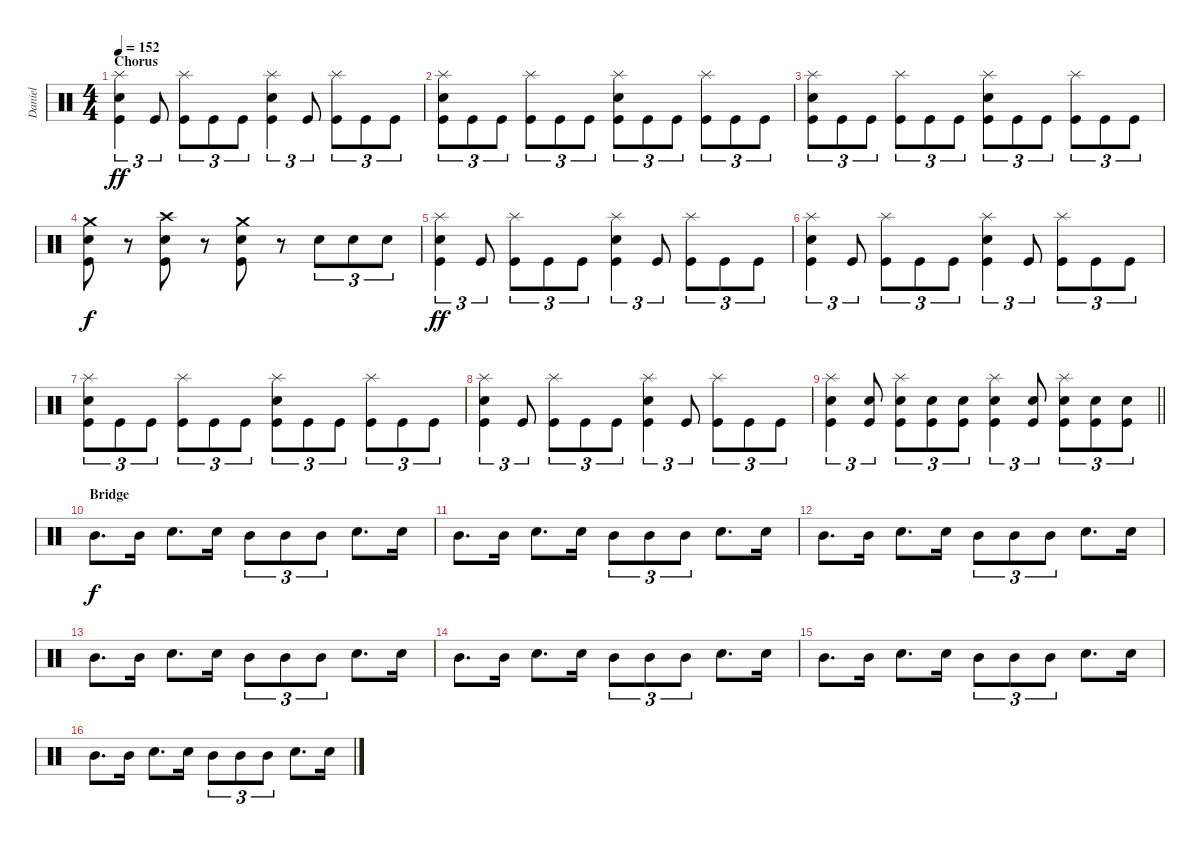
\track ("Daniel" "Daniel") {instrument percussion}
\staff {score}
\articulation defaults
\ts (4 4)
\section ("" "Chorus")
\tempo 152
\clef neutral
\ks c
("Kick (hit)" "Snare (hit) 2" "Splash (hit)").4{tu (3 2) dy ff} "Kick (hit)".8{tu (3 2)} ("Kick (hit)" "Splash (hit)").8{tu (3 2)} "Kick (hit)".8{tu (3 2)} "Kick (hit)".8{tu (3 2)} ("Kick (hit)" "Snare (hit) 2" "Splash (hit)").4{tu (3 2)} "Kick (hit)".8{tu (3 2)} ("Kick (hit)" "Splash (hit)").8{tu (3 2)} "Kick (hit)".8{tu (3 2)} "Kick (hit)".8{tu (3 2)} |
("Kick (hit)" "Snare (hit) 2" "Splash (hit)").8{tu (3 2)} "Kick (hit)".8{tu (3 2)} "Kick (hit)".8{tu (3 2)} ("Kick (hit)" "Splash (hit)").8{tu (3 2)} "Kick (hit)".8{tu (3 2)} "Kick (hit)".8{tu (3 2)} ("Kick (hit)" "Snare (hit) 2" "Splash (hit)").8{tu (3 2)} "Kick (hit)".8{tu (3 2)} "Kick (hit)".8{tu (3 2)} ("Kick (hit)" "Splash (hit)").8{tu (3 2)} "Kick (hit)".8{tu (3 2)} "Kick (hit)".8{tu (3 2)} |
("Kick (hit)" "Snare (hit) 2" "Splash (hit)").8{tu (3 2)} "Kick (hit)".8{tu (3 2)} "Kick (hit)".8{tu (3 2)} ("Kick (hit)" "Splash (hit)").8{tu (3 2)} "Kick (hit)".8{tu (3 2)} "Kick (hit)".8{tu (3 2)} ("Kick (hit)" "Snare (hit) 2" "Splash (hit)").8{tu (3 2)} "Kick (hit)".8{tu (3 2)} "Kick (hit)".8{tu (3 2)} ("Kick (hit)" "Splash (hit)").8{tu (3 2)} "Kick (hit)".8{tu (3 2)} "Kick (hit)".8{tu (3 2)} |
("Kick (hit)" "Snare (hit) 2" "Crash medium (hit)").8{dy f} r.8 ("Kick (hit)" "Snare (hit) 2" "Crash high (hit)").8 r.8 ("Kick (hit)" "Snare (hit) 2" "Crash medium (hit)").8 r.8 "Snare (hit) 2".8{tu (3 2)} "Snare (hit) 2".8{tu (3 2)} "Snare (hit) 2".8{tu (3 2)} |
("Kick (hit)" "Snare (hit) 2" "Splash (hit)").4{tu (3 2) dy ff} "Kick (hit)".8{tu (3 2)} ("Kick (hit)" "Splash (hit)").8{tu (3 2)} "Kick (hit)".8{tu (3 2)} "Kick (hit)".8{tu (3 2)} ("Kick (hit)" "Snare (hit) 2" "Splash (hit)").4{tu (3 2)} "Kick (hit)".8{tu (3 2)} ("Kick (hit)" "Splash (hit)").8{tu (3 2)} "Kick (hit)".8{tu (3 2)} "Kick (hit)".8{tu (3 2)} |
("Kick (hit)" "Snare (hit) 2" "Splash (hit)").4{tu (3 2)} "Kick (hit)".8{tu (3 2)} ("Kick (hit)" "Splash (hit)").8{tu (3 2)} "Kick (hit)".8{tu (3 2)} "Kick (hit)".8{tu (3 2)} ("Kick (hit)" "Snare (hit) 2" "Splash (hit)").4{tu (3 2)} "Kick (hit)".8{tu (3 2)} ("Kick (hit)" "Splash (hit)").8{tu (3 2)} "Kick (hit)".8{tu (3 2)} "Kick (hit)".8{tu (3 2)} |
("Kick (hit)" "Snare (hit) 2" "Splash (hit)").8{tu (3 2)} "Kick (hit)".8{tu (3 2)} "Kick (hit)".8{tu (3 2)} ("Kick (hit)" "Splash (hit)").8{tu (3 2)} "Kick (hit)".8{tu (3 2)} "Kick (hit)".8{tu (3 2)} ("Kick (hit)" "Snare (hit) 2" "Splash (hit)").8{tu (3 2)} "Kick (hit)".8{tu (3 2)} "Kick (hit)".8{tu (3 2)} ("Kick (hit)" "Splash (hit)").8{tu (3 2)} "Kick (hit)".8{tu (3 2)} "Kick (hit)".8{tu (3 2)} |
("Kick (hit)" "Snare (hit) 2" "Splash (hit)").4{tu (3 2)} "Kick (hit)".8{tu (3 2)} ("Kick (hit)" "Splash (hit)").8{tu (3 2)} "Kick (hit)".8{tu (3 2)} "Kick (hit)".8{tu (3 2)} ("Kick (hit)" "Snare (hit) 2" "Splash (hit)").4{tu (3 2)} "Kick (hit)".8{tu (3 2)} ("Kick (hit)" "Splash (hit)").8{tu (3 2)} "Kick (hit)".8{tu (3 2)} "Kick (hit)".8{tu (3 2)} |
\barLineRight lightlight
("Kick (hit)" "Snare (hit) 2" "Splash (hit)").4{tu (3 2)} ("Kick (hit)" "Snare (hit) 2").8{tu (3 2)} ("Kick (hit)" "Snare (hit) 2" "Splash (hit)").8{tu (3 2)} ("Kick (hit)" "Snare (hit) 2").8{tu (3 2)} ("Kick (hit)" "Snare (hit) 2").8{tu (3 2)} ("Kick (hit)" "Snare (hit) 2" "Splash (hit)").4{tu (3 2)} ("Kick (hit)" "Snare (hit) 2").8{tu (3 2)} ("Kick (hit)" "Snare (hit) 2" "Splash (hit)").8{tu (3 2)} ("Kick (hit)" "Snare (hit) 2").8{tu (3 2)} ("Kick (hit)" "Snare (hit) 2").8{tu (3 2)} |
\section ("" "Bridge")
"Mid Tom (hit)".8{d dy f} "Mid Tom (hit)".16 "Snare (hit) 2".8{d} "Snare (hit) 2".16 "Mid Tom (hit)".8{tu (3 2)} "Mid Tom (hit)".8{tu (3 2)} "Mid Tom (hit)".8{tu (3 2)} "Snare (hit) 2".8{d} "Snare (hit) 2".16 |
"Mid Tom (hit)".8{d} "Mid Tom (hit)".16 "Snare (hit) 2".8{d} "Snare (hit) 2".16 "Mid Tom (hit)".8{tu (3 2)} "Mid Tom (hit)".8{tu (3 2)} "Mid Tom (hit)".8{tu (3 2)} "Snare (hit) 2".8{d} "Snare (hit) 2".16 |
"Mid Tom (hit)".8{d} "Mid Tom (hit)".16 "Snare (hit) 2".8{d} "Snare (hit) 2".16 "Mid Tom (hit)".8{tu (3 2)} "Mid Tom (hit)".8{tu (3 2)} "Mid Tom (hit)".8{tu (3 2)} "Snare (hit) 2".8{d} "Snare (hit) 2".16 |
"Mid Tom (hit)".8{d} "Mid Tom (hit)".16 "Snare (hit) 2".8{d} "Snare (hit) 2".16 "Mid Tom (hit)".8{tu (3 2)} "Mid Tom (hit)".8{tu (3 2)} "Mid Tom (hit)".8{tu (3 2)} "Snare (hit) 2".8{d} "Snare (hit) 2".16 |
"Mid Tom (hit)".8{d} "Mid Tom (hit)".16 "Snare (hit) 2".8{d} "Snare (hit) 2".16 "Mid Tom (hit)".8{tu (3 2)} "Mid Tom (hit)".8{tu (3 2)} "Mid Tom (hit)".8{tu (3 2)} "Snare (hit) 2".8{d} "Snare (hit) 2".16 |
"Mid Tom (hit)".8{d} "Mid Tom (hit)".16 "Snare (hit) 2".8{d} "Snare (hit) 2".16 "Mid Tom (hit)".8{tu (3 2)} "Mid Tom (hit)".8{tu (3 2)} "Mid Tom (hit)".8{tu (3 2)} "Snare (hit) 2".8{d} "Snare (hit) 2".16 |
"Mid Tom (hit)".8{d} "Mid Tom (hit)".16 "Snare (hit) 2".8{d} "Snare (hit) 2".16 "Mid Tom (hit)".8{tu (3 2)} "Mid Tom (hit)".8{tu (3 2)} "Mid Tom (hit)".8{tu (3 2)} "Snare (hit) 2".8{d} "Snare (hit) 2".16
